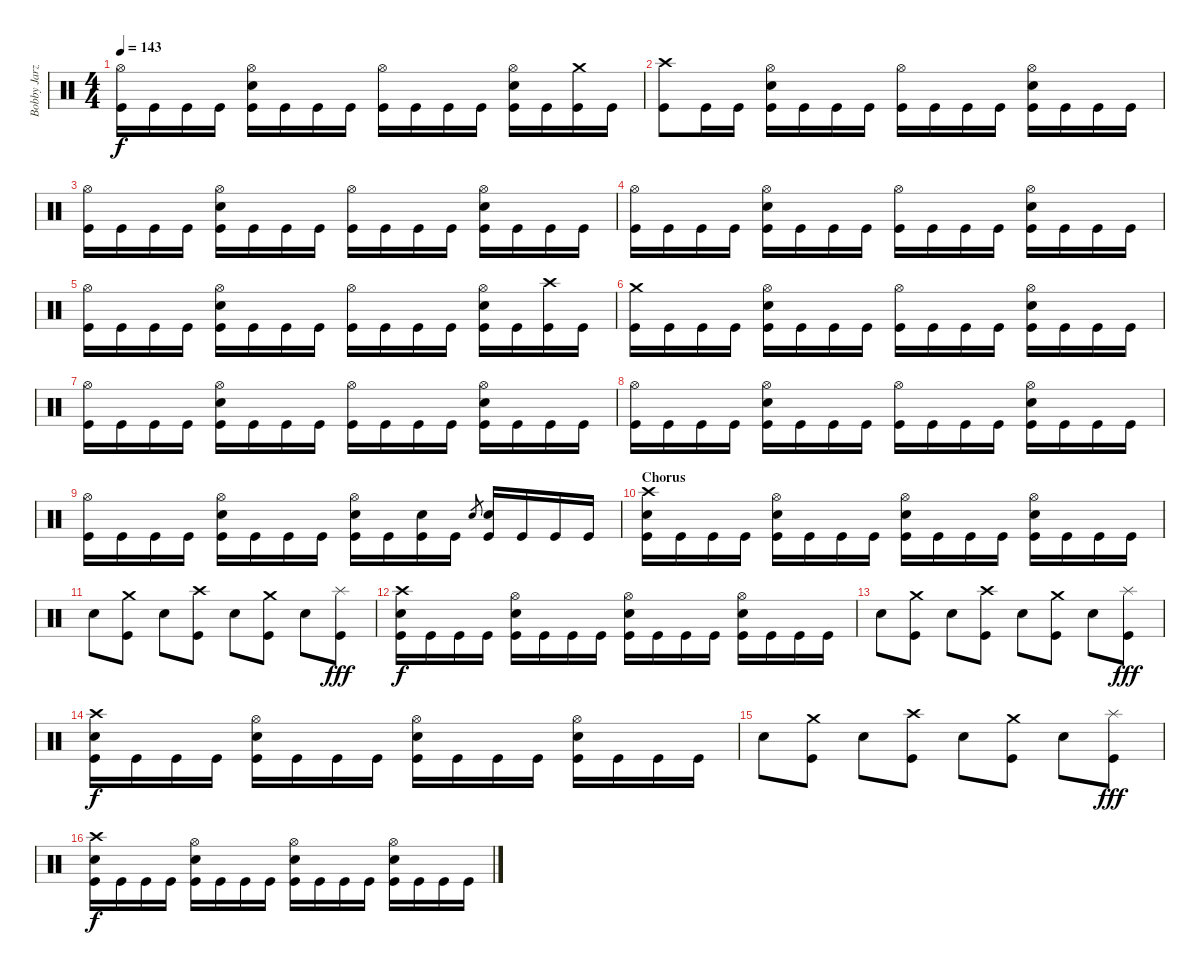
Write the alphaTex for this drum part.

\track ("Bobby Jarzombek" "Bobby Jarz") {instrument percussion}
\staff {score}
\articulation defaults
\ts (4 4)
\tempo 143
\clef neutral
\ks c
("Hi-Hat (open)" "Kick (hit)").16{dy f} "Kick (hit)".16 "Kick (hit)".16 "Kick (hit)".16 ("Hi-Hat (open)" "Electric Snare (hit)" "Kick (hit)").16 "Kick (hit)".16 "Kick (hit)".16 "Kick (hit)".16 ("Hi-Hat (open)" "Kick (hit)").16 "Kick (hit)".16 "Kick (hit)".16 "Kick (hit)".16 ("Hi-Hat (open)" "Electric Snare (hit)" "Kick (hit)").16 "Kick (hit)".16 ("Crash medium (hit)" "Kick (hit)").16 "Kick (hit)".16 |
("Crash high (hit)" "Kick (hit)").8 "Kick (hit)".16 "Kick (hit)".16 ("Hi-Hat (open)" "Electric Snare (hit)" "Kick (hit)").16 "Kick (hit)".16 "Kick (hit)".16 "Kick (hit)".16 ("Hi-Hat (open)" "Kick (hit)").16 "Kick (hit)".16 "Kick (hit)".16 "Kick (hit)".16 ("Hi-Hat (open)" "Electric Snare (hit)" "Kick (hit)").16 "Kick (hit)".16 "Kick (hit)".16 "Kick (hit)".16 |
("Hi-Hat (open)" "Kick (hit)").16 "Kick (hit)".16 "Kick (hit)".16 "Kick (hit)".16 ("Hi-Hat (open)" "Electric Snare (hit)" "Kick (hit)").16 "Kick (hit)".16 "Kick (hit)".16 "Kick (hit)".16 ("Hi-Hat (open)" "Kick (hit)").16 "Kick (hit)".16 "Kick (hit)".16 "Kick (hit)".16 ("Hi-Hat (open)" "Electric Snare (hit)" "Kick (hit)").16 "Kick (hit)".16 "Kick (hit)".16 "Kick (hit)".16 |
("Hi-Hat (open)" "Kick (hit)").16 "Kick (hit)".16 "Kick (hit)".16 "Kick (hit)".16 ("Hi-Hat (open)" "Electric Snare (hit)" "Kick (hit)").16 "Kick (hit)".16 "Kick (hit)".16 "Kick (hit)".16 ("Hi-Hat (open)" "Kick (hit)").16 "Kick (hit)".16 "Kick (hit)".16 "Kick (hit)".16 ("Hi-Hat (open)" "Electric Snare (hit)" "Kick (hit)").16 "Kick (hit)".16 "Kick (hit)".16 "Kick (hit)".16 |
("Hi-Hat (open)" "Kick (hit)").16 "Kick (hit)".16 "Kick (hit)".16 "Kick (hit)".16 ("Hi-Hat (open)" "Electric Snare (hit)" "Kick (hit)").16 "Kick (hit)".16 "Kick (hit)".16 "Kick (hit)".16 ("Hi-Hat (open)" "Kick (hit)").16 "Kick (hit)".16 "Kick (hit)".16 "Kick (hit)".16 ("Hi-Hat (open)" "Electric Snare (hit)" "Kick (hit)").16 "Kick (hit)".16 ("Crash high (hit)" "Kick (hit)").16 "Kick (hit)".16 |
("Crash medium (hit)" "Kick (hit)").16 "Kick (hit)".16 "Kick (hit)".16 "Kick (hit)".16 ("Hi-Hat (open)" "Electric Snare (hit)" "Kick (hit)").16 "Kick (hit)".16 "Kick (hit)".16 "Kick (hit)".16 ("Hi-Hat (open)" "Kick (hit)").16 "Kick (hit)".16 "Kick (hit)".16 "Kick (hit)".16 ("Hi-Hat (open)" "Electric Snare (hit)" "Kick (hit)").16 "Kick (hit)".16 "Kick (hit)".16 "Kick (hit)".16 |
("Hi-Hat (open)" "Kick (hit)").16 "Kick (hit)".16 "Kick (hit)".16 "Kick (hit)".16 ("Hi-Hat (open)" "Electric Snare (hit)" "Kick (hit)").16 "Kick (hit)".16 "Kick (hit)".16 "Kick (hit)".16 ("Hi-Hat (open)" "Kick (hit)").16 "Kick (hit)".16 "Kick (hit)".16 "Kick (hit)".16 ("Hi-Hat (open)" "Electric Snare (hit)" "Kick (hit)").16 "Kick (hit)".16 "Kick (hit)".16 "Kick (hit)".16 |
("Hi-Hat (open)" "Kick (hit)").16 "Kick (hit)".16 "Kick (hit)".16 "Kick (hit)".16 ("Hi-Hat (open)" "Electric Snare (hit)" "Kick (hit)").16 "Kick (hit)".16 "Kick (hit)".16 "Kick (hit)".16 ("Hi-Hat (open)" "Kick (hit)").16 "Kick (hit)".16 "Kick (hit)".16 "Kick (hit)".16 ("Hi-Hat (open)" "Electric Snare (hit)" "Kick (hit)").16 "Kick (hit)".16 "Kick (hit)".16 "Kick (hit)".16 |
("Hi-Hat (open)" "Kick (hit)").16 "Kick (hit)".16 "Kick (hit)".16 "Kick (hit)".16 ("Hi-Hat (open)" "Electric Snare (hit)" "Kick (hit)").16 "Kick (hit)".16 "Kick (hit)".16 "Kick (hit)".16 ("Hi-Hat (open)" "Electric Snare (hit)" "Kick (hit)").16 "Kick (hit)".16 ("Electric Snare (hit)" "Kick (hit)").16 "Kick (hit)".16 "Electric Snare (hit)".8{gr} ("Electric Snare (hit)" "Kick (hit)").16 "Kick (hit)".16 "Kick (hit)".16 "Kick (hit)".16 |
\section ("" "Chorus")
("Crash high (hit)" "Electric Snare (hit)" "Kick (hit)").16 "Kick (hit)".16 "Kick (hit)".16 "Kick (hit)".16 ("Hi-Hat (open)" "Electric Snare (hit)" "Kick (hit)").16 "Kick (hit)".16 "Kick (hit)".16 "Kick (hit)".16 ("Hi-Hat (open)" "Electric Snare (hit)" "Kick (hit)").16 "Kick (hit)".16 "Kick (hit)".16 "Kick (hit)".16 ("Hi-Hat (open)" "Electric Snare (hit)" "Kick (hit)").16 "Kick (hit)".16 "Kick (hit)".16 "Kick (hit)".16 |
"Electric Snare (hit)".8 ("Crash medium (hit)" "Kick (hit)").8 "Electric Snare (hit)".8 ("Crash high (hit)" "Kick (hit)").8 "Electric Snare (hit)".8 ("Crash medium (hit)" "Kick (hit)").8 "Electric Snare (hit)".8 ("Splash (hit)" "Kick (hit)").8{dy fff} |
("Crash high (hit)" "Electric Snare (hit)" "Kick (hit)").16{dy f} "Kick (hit)".16 "Kick (hit)".16 "Kick (hit)".16 ("Hi-Hat (open)" "Electric Snare (hit)" "Kick (hit)").16 "Kick (hit)".16 "Kick (hit)".16 "Kick (hit)".16 ("Hi-Hat (open)" "Electric Snare (hit)" "Kick (hit)").16 "Kick (hit)".16 "Kick (hit)".16 "Kick (hit)".16 ("Hi-Hat (open)" "Electric Snare (hit)" "Kick (hit)").16 "Kick (hit)".16 "Kick (hit)".16 "Kick (hit)".16 |
"Electric Snare (hit)".8 ("Crash medium (hit)" "Kick (hit)").8 "Electric Snare (hit)".8 ("Crash high (hit)" "Kick (hit)").8 "Electric Snare (hit)".8 ("Crash medium (hit)" "Kick (hit)").8 "Electric Snare (hit)".8 ("Splash (hit)" "Kick (hit)").8{dy fff} |
("Crash high (hit)" "Electric Snare (hit)" "Kick (hit)").16{dy f} "Kick (hit)".16 "Kick (hit)".16 "Kick (hit)".16 ("Hi-Hat (open)" "Electric Snare (hit)" "Kick (hit)").16 "Kick (hit)".16 "Kick (hit)".16 "Kick (hit)".16 ("Hi-Hat (open)" "Electric Snare (hit)" "Kick (hit)").16 "Kick (hit)".16 "Kick (hit)".16 "Kick (hit)".16 ("Hi-Hat (open)" "Electric Snare (hit)" "Kick (hit)").16 "Kick (hit)".16 "Kick (hit)".16 "Kick (hit)".16 |
"Electric Snare (hit)".8 ("Crash medium (hit)" "Kick (hit)").8 "Electric Snare (hit)".8 ("Crash high (hit)" "Kick (hit)").8 "Electric Snare (hit)".8 ("Crash medium (hit)" "Kick (hit)").8 "Electric Snare (hit)".8 ("Splash (hit)" "Kick (hit)").8{dy fff} |
("Crash high (hit)" "Electric Snare (hit)" "Kick (hit)").16{dy f} "Kick (hit)".16 "Kick (hit)".16 "Kick (hit)".16 ("Hi-Hat (open)" "Electric Snare (hit)" "Kick (hit)").16 "Kick (hit)".16 "Kick (hit)".16 "Kick (hit)".16 ("Hi-Hat (open)" "Electric Snare (hit)" "Kick (hit)").16 "Kick (hit)".16 "Kick (hit)".16 "Kick (hit)".16 ("Hi-Hat (open)" "Electric Snare (hit)" "Kick (hit)").16 "Kick (hit)".16 "Kick (hit)".16 "Kick (hit)".16
